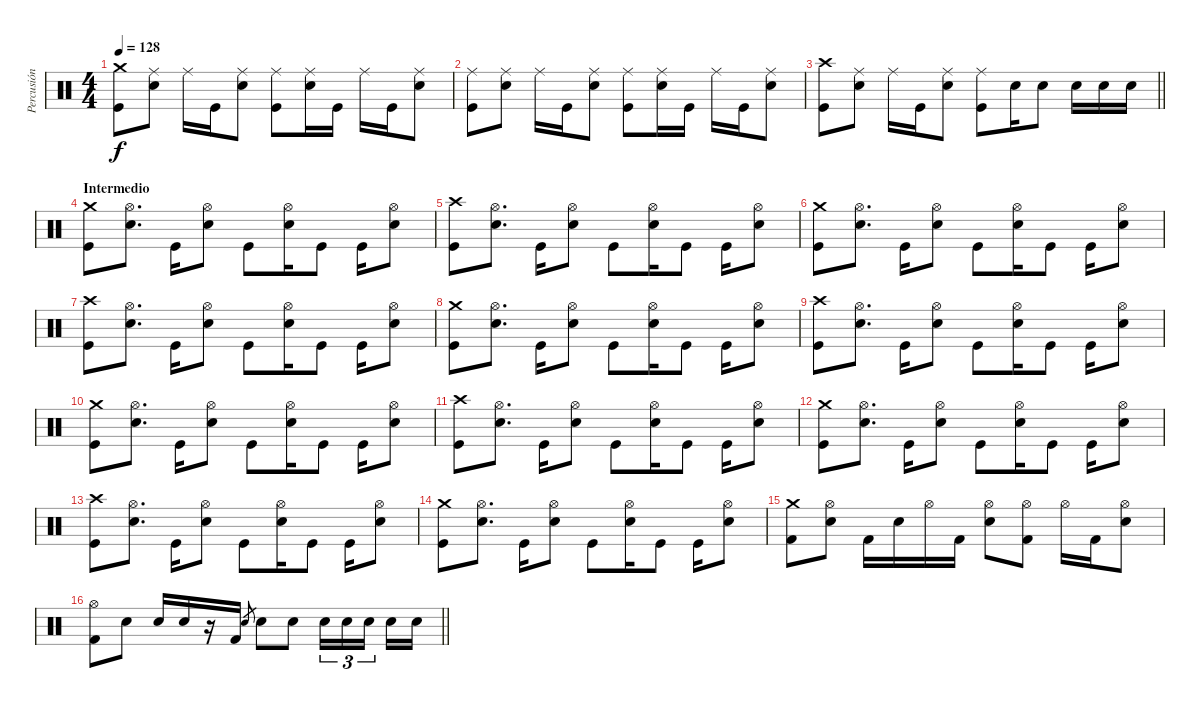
\track ("Percusión" "Percusión") {instrument percussion}
\staff {score}
\articulation defaults
\ts (4 4)
\tempo 128
\clef neutral
\ks c
("Crash medium (hit)" "Kick (hit)").8{dy f} ("Ride (middle)" "Snare (hit) 2").8 "Ride (middle)".16 "Kick (hit)".16 ("Ride (middle)" "Snare (hit) 2").8 ("Ride (middle)" "Kick (hit)").8 ("Ride (middle)" "Snare (hit) 2").16 "Kick (hit)".16 "Ride (middle)".16 "Kick (hit)".16 ("Ride (middle)" "Snare (hit) 2").8 |
("Ride (middle)" "Kick (hit)").8 ("Ride (middle)" "Snare (hit) 2").8 "Ride (middle)".16 "Kick (hit)".16 ("Ride (middle)" "Snare (hit) 2").8 ("Ride (middle)" "Kick (hit)").8 ("Ride (middle)" "Snare (hit) 2").16 "Kick (hit)".16 "Ride (middle)".16 "Kick (hit)".16 ("Ride (middle)" "Snare (hit) 2").8 |
\barLineRight lightlight
("Crash high (hit)" "Kick (hit)").8 ("Ride (middle)" "Snare (hit) 2").8 "Ride (middle)".16 "Kick (hit)".16 ("Ride (middle)" "Snare (hit) 2").8 ("Ride (middle)" "Kick (hit)").8 "Snare (hit) 2".16 "Snare (hit) 2".8 "Snare (hit) 2".16 "Snare (hit) 2".16 "Snare (hit) 2".16 |
\section ("" "Intermedio")
("Crash medium (hit)" "Kick (hit)").8 ("Hi-Hat (open)" "Snare (hit) 2").8{d} "Kick (hit)".16 ("Hi-Hat (open)" "Snare (hit) 2").8 "Kick (hit)".8 ("Hi-Hat (open)" "Snare (hit) 2").16 "Kick (hit)".8 "Kick (hit)".16 ("Hi-Hat (open)" "Snare (hit) 2").8 |
("Crash high (hit)" "Kick (hit)").8 ("Hi-Hat (open)" "Snare (hit) 2").8{d} "Kick (hit)".16 ("Hi-Hat (open)" "Snare (hit) 2").8 "Kick (hit)".8 ("Hi-Hat (open)" "Snare (hit) 2").16 "Kick (hit)".8 "Kick (hit)".16 ("Hi-Hat (open)" "Snare (hit) 2").8 |
("Crash medium (hit)" "Kick (hit)").8 ("Hi-Hat (open)" "Snare (hit) 2").8{d} "Kick (hit)".16 ("Hi-Hat (open)" "Snare (hit) 2").8 "Kick (hit)".8 ("Hi-Hat (open)" "Snare (hit) 2").16 "Kick (hit)".8 "Kick (hit)".16 ("Hi-Hat (open)" "Snare (hit) 2").8 |
("Crash high (hit)" "Kick (hit)").8 ("Hi-Hat (open)" "Snare (hit) 2").8{d} "Kick (hit)".16 ("Hi-Hat (open)" "Snare (hit) 2").8 "Kick (hit)".8 ("Hi-Hat (open)" "Snare (hit) 2").16 "Kick (hit)".8 "Kick (hit)".16 ("Hi-Hat (open)" "Snare (hit) 2").8 |
("Crash medium (hit)" "Kick (hit)").8 ("Hi-Hat (open)" "Snare (hit) 2").8{d} "Kick (hit)".16 ("Hi-Hat (open)" "Snare (hit) 2").8 "Kick (hit)".8 ("Hi-Hat (open)" "Snare (hit) 2").16 "Kick (hit)".8 "Kick (hit)".16 ("Hi-Hat (open)" "Snare (hit) 2").8 |
("Crash high (hit)" "Kick (hit)").8 ("Hi-Hat (open)" "Snare (hit) 2").8{d} "Kick (hit)".16 ("Hi-Hat (open)" "Snare (hit) 2").8 "Kick (hit)".8 ("Hi-Hat (open)" "Snare (hit) 2").16 "Kick (hit)".8 "Kick (hit)".16 ("Hi-Hat (open)" "Snare (hit) 2").8 |
("Crash medium (hit)" "Kick (hit)").8 ("Hi-Hat (open)" "Snare (hit) 2").8{d} "Kick (hit)".16 ("Hi-Hat (open)" "Snare (hit) 2").8 "Kick (hit)".8 ("Hi-Hat (open)" "Snare (hit) 2").16 "Kick (hit)".8 "Kick (hit)".16 ("Hi-Hat (open)" "Snare (hit) 2").8 |
("Crash high (hit)" "Kick (hit)").8 ("Hi-Hat (open)" "Snare (hit) 2").8{d} "Kick (hit)".16 ("Hi-Hat (open)" "Snare (hit) 2").8 "Kick (hit)".8 ("Hi-Hat (open)" "Snare (hit) 2").16 "Kick (hit)".8 "Kick (hit)".16 ("Hi-Hat (open)" "Snare (hit) 2").8 |
("Crash medium (hit)" "Kick (hit)").8 ("Hi-Hat (open)" "Snare (hit) 2").8{d} "Kick (hit)".16 ("Hi-Hat (open)" "Snare (hit) 2").8 "Kick (hit)".8 ("Hi-Hat (open)" "Snare (hit) 2").16 "Kick (hit)".8 "Kick (hit)".16 ("Hi-Hat (open)" "Snare (hit) 2").8 |
("Crash high (hit)" "Kick (hit)").8 ("Hi-Hat (open)" "Snare (hit) 2").8{d} "Kick (hit)".16 ("Hi-Hat (open)" "Snare (hit) 2").8 "Kick (hit)".8 ("Hi-Hat (open)" "Snare (hit) 2").16 "Kick (hit)".8 "Kick (hit)".16 ("Hi-Hat (open)" "Snare (hit) 2").8 |
("Crash medium (hit)" "Kick (hit)").8 ("Hi-Hat (open)" "Snare (hit) 2").8{d} "Kick (hit)".16 ("Hi-Hat (open)" "Snare (hit) 2").8 "Kick (hit)".8 ("Hi-Hat (open)" "Snare (hit) 2").16 "Kick (hit)".8 "Kick (hit)".16 ("Hi-Hat (open)" "Snare (hit) 2").8 |
("Crash medium (hit)" "Kick (hit) 2").8 ("Hi-Hat (open)" "Snare (hit) 2").8 "Kick (hit) 2".16 "Snare (hit) 2".16 "Hi-Hat (open)".16 "Kick (hit) 2".16 ("Hi-Hat (open)" "Snare (hit) 2").8 ("Hi-Hat (open)" "Kick (hit) 2").8 "Hi-Hat (open)".16 "Kick (hit) 2".16 ("Hi-Hat (open)" "Snare (hit) 2").8 |
\barLineRight lightlight
("Hi-Hat (open)" "Kick (hit) 2").8 "Snare (hit) 2".8 "Snare (hit) 2".16 "Snare (hit) 2".16 r.16 "Kick (hit) 2".16 "Snare (hit) 2".8{gr} "Snare (hit) 2".8 "Snare (hit) 2".8 "Snare (hit) 2".16{tu (3 2)} "Snare (hit) 2".16{tu (3 2)} "Snare (hit) 2".16{tu (3 2) beam splitsecondary} "Snare (hit) 2".16 "Snare (hit) 2".16
